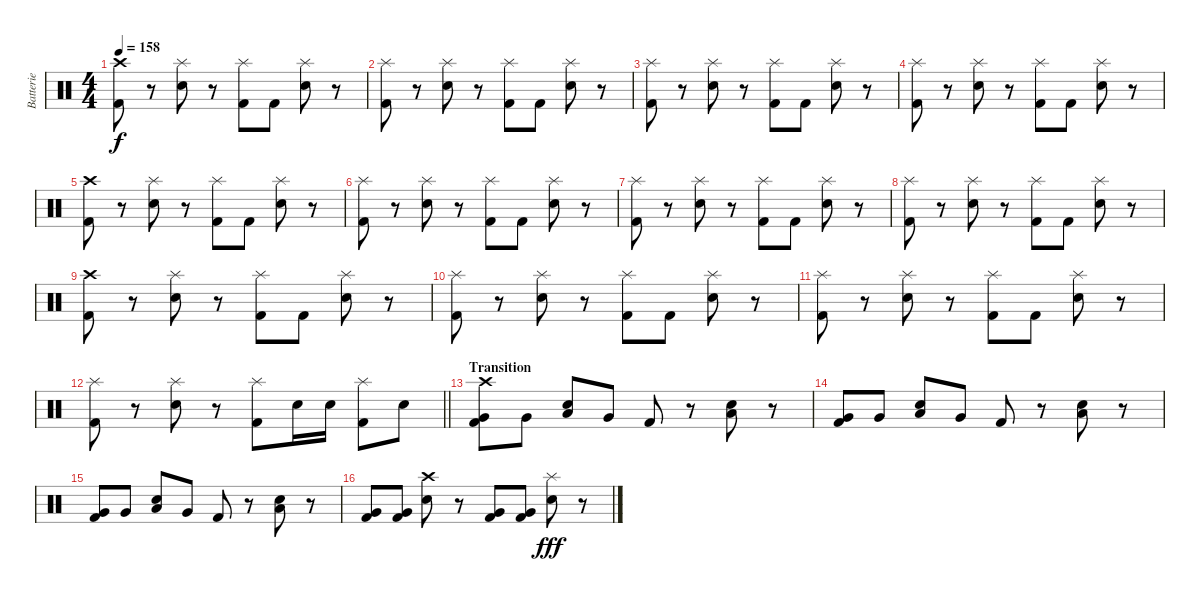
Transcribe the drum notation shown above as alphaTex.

\track ("Batterie" "Batterie") {instrument percussion}
\staff {score}
\articulation defaults
\ts (4 4)
\tempo 158
\clef neutral
\ks c
("Crash high (hit)" "Kick (hit) 2").8{dy f} r.8 ("Splash (hit)" "Electric Snare (hit)").8 r.8 ("Splash (hit)" "Kick (hit) 2").8 "Kick (hit) 2".8 ("Splash (hit)" "Electric Snare (hit)").8 r.8 |
("Splash (hit)" "Kick (hit) 2").8 r.8 ("Splash (hit)" "Electric Snare (hit)").8 r.8 ("Splash (hit)" "Kick (hit) 2").8 "Kick (hit) 2".8 ("Splash (hit)" "Electric Snare (hit)").8 r.8 |
("Splash (hit)" "Kick (hit) 2").8 r.8 ("Splash (hit)" "Electric Snare (hit)").8 r.8 ("Splash (hit)" "Kick (hit) 2").8 "Kick (hit) 2".8 ("Splash (hit)" "Electric Snare (hit)").8 r.8 |
("Splash (hit)" "Kick (hit) 2").8 r.8 ("Splash (hit)" "Electric Snare (hit)").8 r.8 ("Splash (hit)" "Kick (hit) 2").8 "Kick (hit) 2".8 ("Splash (hit)" "Electric Snare (hit)").8 r.8 |
("Crash high (hit)" "Kick (hit) 2").8 r.8 ("Splash (hit)" "Electric Snare (hit)").8 r.8 ("Splash (hit)" "Kick (hit) 2").8 "Kick (hit) 2".8 ("Splash (hit)" "Electric Snare (hit)").8 r.8 |
("Splash (hit)" "Kick (hit) 2").8 r.8 ("Splash (hit)" "Electric Snare (hit)").8 r.8 ("Splash (hit)" "Kick (hit) 2").8 "Kick (hit) 2".8 ("Splash (hit)" "Electric Snare (hit)").8 r.8 |
("Splash (hit)" "Kick (hit) 2").8 r.8 ("Splash (hit)" "Electric Snare (hit)").8 r.8 ("Splash (hit)" "Kick (hit) 2").8 "Kick (hit) 2".8 ("Splash (hit)" "Electric Snare (hit)").8 r.8 |
("Splash (hit)" "Kick (hit) 2").8 r.8 ("Splash (hit)" "Electric Snare (hit)").8 r.8 ("Splash (hit)" "Kick (hit) 2").8 "Kick (hit) 2".8 ("Splash (hit)" "Electric Snare (hit)").8 r.8 |
("Crash high (hit)" "Kick (hit) 2").8 r.8 ("Splash (hit)" "Electric Snare (hit)").8 r.8 ("Splash (hit)" "Kick (hit) 2").8 "Kick (hit) 2".8 ("Splash (hit)" "Electric Snare (hit)").8 r.8 |
("Splash (hit)" "Kick (hit) 2").8 r.8 ("Splash (hit)" "Electric Snare (hit)").8 r.8 ("Splash (hit)" "Kick (hit) 2").8 "Kick (hit) 2".8 ("Splash (hit)" "Electric Snare (hit)").8 r.8 |
("Splash (hit)" "Kick (hit) 2").8 r.8 ("Splash (hit)" "Electric Snare (hit)").8 r.8 ("Splash (hit)" "Kick (hit) 2").8 "Kick (hit) 2".8 ("Splash (hit)" "Electric Snare (hit)").8 r.8 |
\barLineRight lightlight
("Splash (hit)" "Kick (hit) 2").8 r.8 ("Splash (hit)" "Electric Snare (hit)").8 r.8 ("Splash (hit)" "Kick (hit) 2").8 "Electric Snare (hit)".16 "Electric Snare (hit)".16 ("Splash (hit)" "Kick (hit) 2").8 "Electric Snare (hit)".8 |
\section ("" "Transition")
("Crash high (hit)" "Very Low Tom (hit)" "Kick (hit) 2").8{volume 12} "Very Low Tom (hit)".8 ("Electric Snare (hit)" "Low Tom (hit)").8 "Very Low Tom (hit)".8 "Kick (hit) 2".8 r.8 ("Electric Snare (hit)" "Low Tom (hit)").8 r.8 |
("Very Low Tom (hit)" "Kick (hit) 2").8 "Very Low Tom (hit)".8 ("Electric Snare (hit)" "Low Tom (hit)").8 "Very Low Tom (hit)".8 "Kick (hit) 2".8 r.8 ("Electric Snare (hit)" "Low Tom (hit)").8 r.8 |
("Very Low Tom (hit)" "Kick (hit) 2").8 "Very Low Tom (hit)".8 ("Electric Snare (hit)" "Low Tom (hit)").8 "Very Low Tom (hit)".8 "Kick (hit) 2".8 r.8 ("Electric Snare (hit)" "Low Tom (hit)").8 r.8 |
("Very Low Tom (hit)" "Kick (hit) 2").8 ("Very Low Tom (hit)" "Kick (hit) 2").8 ("Crash high (hit)" "Electric Snare (hit)").8 r.8 ("Very Low Tom (hit)" "Kick (hit) 2").8 ("Very Low Tom (hit)" "Kick (hit) 2").8 ("Splash (hit)" "Electric Snare (hit)").8{dy fff} r.8
